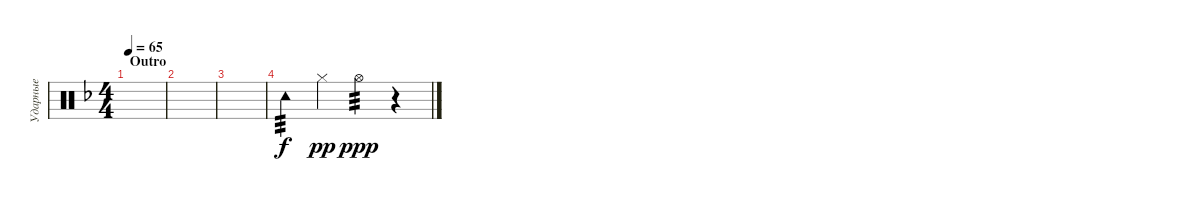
\track ("Ударные" "Ударные") {instrument percussion}
\staff {score}
\articulation defaults
\ts (4 4)
\section ("" "Outro")
\tempo 65
\clef neutral
\ks dminor
|
|
|
"Tambourine (hit)".4{tp 3} "Hi-Hat (closed)".4{dy pp} "Hi-Hat (open)".4{tp 3 dy ppp} r.4
